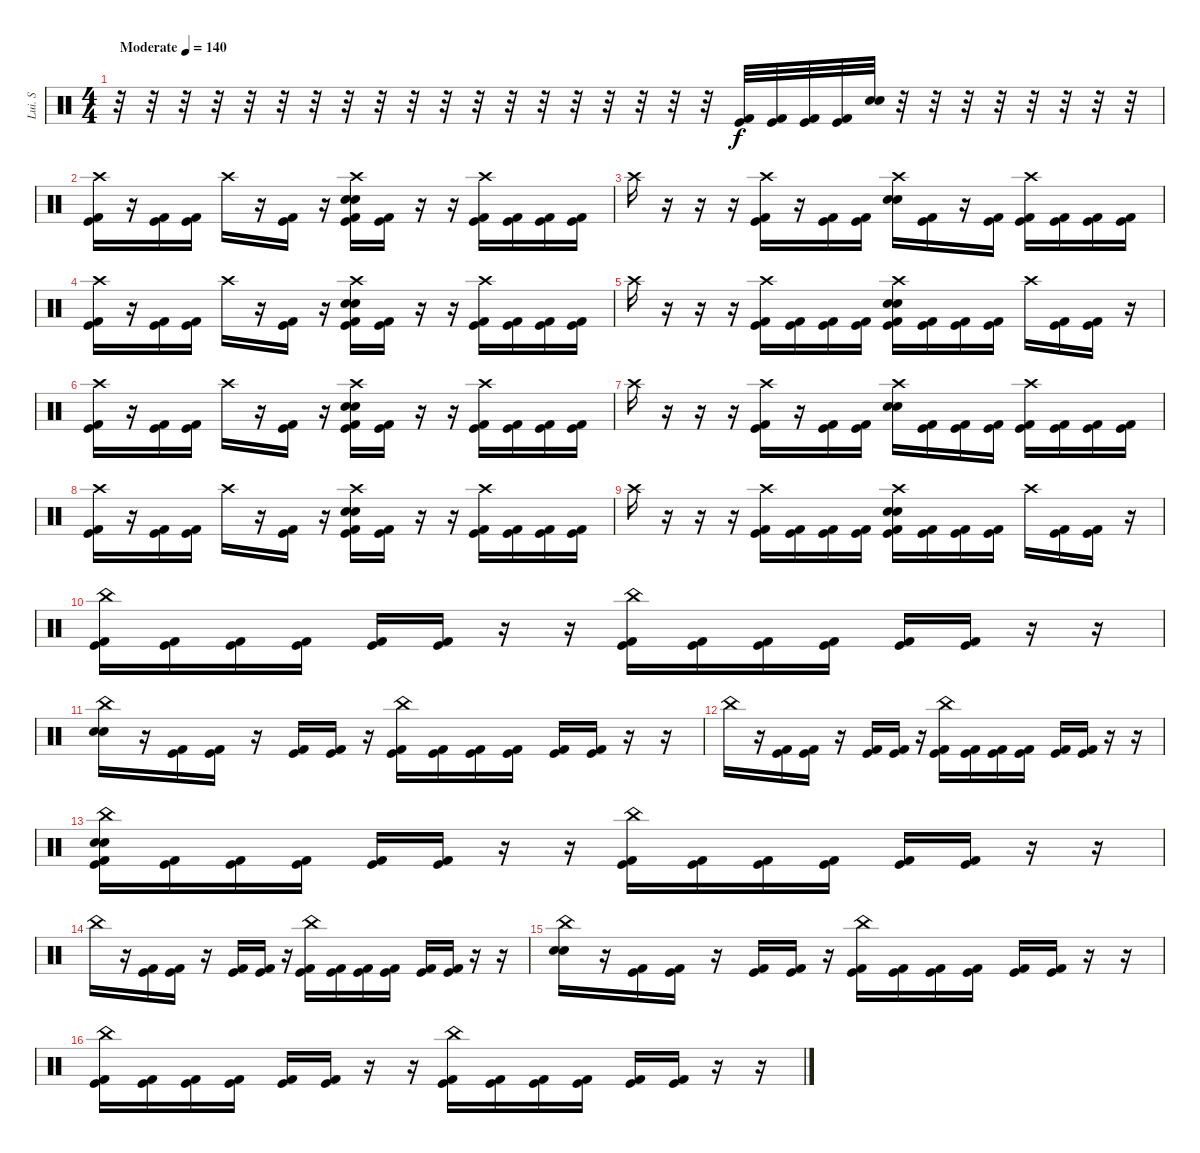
\track ("Lui. S" "Lui. S") {instrument percussion}
\staff {score}
\articulation defaults
\ts (4 4)
\tempo (140 "Moderate")
\clef neutral
\ks c
r.32{dy f} r.32 r.32 r.32 r.32 r.32 r.32 r.32 r.32 r.32 r.32 r.32 r.32 r.32 r.32 r.32 r.32 r.32 r.32 ("Kick (hit)" "Kick (hit) 2").32 ("Kick (hit)" "Kick (hit) 2").32 ("Kick (hit)" "Kick (hit) 2").32 ("Kick (hit)" "Kick (hit) 2").32 ("Electric Snare (hit)" "Snare (hit) 2").32 r.32 r.32 r.32 r.32 r.32 r.32 r.32 r.32 |
("Crash high (hit)" "Kick (hit)" "Kick (hit) 2").16 r.16 ("Kick (hit)" "Kick (hit) 2").16 ("Kick (hit)" "Kick (hit) 2").16 "Crash high (hit)".16 r.16 ("Kick (hit)" "Kick (hit) 2").16 r.16 ("Crash high (hit)" "Electric Snare (hit)" "Snare (hit) 2" "Kick (hit)" "Kick (hit) 2").16 ("Kick (hit)" "Kick (hit) 2").16 r.16 r.16 ("Crash high (hit)" "Kick (hit)" "Kick (hit) 2").16 ("Kick (hit)" "Kick (hit) 2").16 ("Kick (hit)" "Kick (hit) 2").16 ("Kick (hit)" "Kick (hit) 2").16 |
"Crash high (hit)".16 r.16 r.16 r.16 ("Crash high (hit)" "Kick (hit)" "Kick (hit) 2").16 r.16 ("Kick (hit)" "Kick (hit) 2").16 ("Kick (hit)" "Kick (hit) 2").16 ("Crash high (hit)" "Electric Snare (hit)" "Snare (hit) 2").16 ("Kick (hit)" "Kick (hit) 2").16 r.16 ("Kick (hit)" "Kick (hit) 2").16 ("Crash high (hit)" "Kick (hit)" "Kick (hit) 2").16 ("Kick (hit)" "Kick (hit) 2").16 ("Kick (hit)" "Kick (hit) 2").16 ("Kick (hit)" "Kick (hit) 2").16 |
("Crash high (hit)" "Kick (hit)" "Kick (hit) 2").16 r.16 ("Kick (hit)" "Kick (hit) 2").16 ("Kick (hit)" "Kick (hit) 2").16 "Crash high (hit)".16 r.16 ("Kick (hit)" "Kick (hit) 2").16 r.16 ("Crash high (hit)" "Electric Snare (hit)" "Snare (hit) 2" "Kick (hit)" "Kick (hit) 2").16 ("Kick (hit)" "Kick (hit) 2").16 r.16 r.16 ("Crash high (hit)" "Kick (hit)" "Kick (hit) 2").16 ("Kick (hit)" "Kick (hit) 2").16 ("Kick (hit)" "Kick (hit) 2").16 ("Kick (hit)" "Kick (hit) 2").16 |
"Crash high (hit)".16 r.16 r.16 r.16 ("Crash high (hit)" "Kick (hit)" "Kick (hit) 2").16 ("Kick (hit)" "Kick (hit) 2").16 ("Kick (hit)" "Kick (hit) 2").16 ("Kick (hit)" "Kick (hit) 2").16 ("Crash high (hit)" "Electric Snare (hit)" "Snare (hit) 2" "Kick (hit)" "Kick (hit) 2").16 ("Kick (hit)" "Kick (hit) 2").16 ("Kick (hit)" "Kick (hit) 2").16 ("Kick (hit)" "Kick (hit) 2").16 "Crash high (hit)".16 ("Kick (hit)" "Kick (hit) 2").16 ("Kick (hit)" "Kick (hit) 2").16 r.16 |
("Crash high (hit)" "Kick (hit)" "Kick (hit) 2").16 r.16 ("Kick (hit)" "Kick (hit) 2").16 ("Kick (hit)" "Kick (hit) 2").16 "Crash high (hit)".16 r.16 ("Kick (hit)" "Kick (hit) 2").16 r.16 ("Crash high (hit)" "Electric Snare (hit)" "Snare (hit) 2" "Kick (hit)" "Kick (hit) 2").16 ("Kick (hit)" "Kick (hit) 2").16 r.16 r.16 ("Crash high (hit)" "Kick (hit)" "Kick (hit) 2").16 ("Kick (hit)" "Kick (hit) 2").16 ("Kick (hit)" "Kick (hit) 2").16 ("Kick (hit)" "Kick (hit) 2").16 |
"Crash high (hit)".16 r.16 r.16 r.16 ("Crash high (hit)" "Kick (hit)" "Kick (hit) 2").16 r.16 ("Kick (hit)" "Kick (hit) 2").16 ("Kick (hit)" "Kick (hit) 2").16 ("Crash high (hit)" "Electric Snare (hit)" "Snare (hit) 2").16 ("Kick (hit)" "Kick (hit) 2").16 ("Kick (hit)" "Kick (hit) 2").16 ("Kick (hit)" "Kick (hit) 2").16 ("Crash high (hit)" "Kick (hit)" "Kick (hit) 2").16 ("Kick (hit)" "Kick (hit) 2").16 ("Kick (hit)" "Kick (hit) 2").16 ("Kick (hit)" "Kick (hit) 2").16 |
("Crash high (hit)" "Kick (hit)" "Kick (hit) 2").16 r.16 ("Kick (hit)" "Kick (hit) 2").16 ("Kick (hit)" "Kick (hit) 2").16 "Crash high (hit)".16 r.16 ("Kick (hit)" "Kick (hit) 2").16 r.16 ("Crash high (hit)" "Electric Snare (hit)" "Snare (hit) 2" "Kick (hit)" "Kick (hit) 2").16 ("Kick (hit)" "Kick (hit) 2").16 r.16 r.16 ("Crash high (hit)" "Kick (hit)" "Kick (hit) 2").16 ("Kick (hit)" "Kick (hit) 2").16 ("Kick (hit)" "Kick (hit) 2").16 ("Kick (hit)" "Kick (hit) 2").16 |
"Crash high (hit)".16 r.16 r.16 r.16 ("Crash high (hit)" "Kick (hit)" "Kick (hit) 2").16 ("Kick (hit)" "Kick (hit) 2").16 ("Kick (hit)" "Kick (hit) 2").16 ("Kick (hit)" "Kick (hit) 2").16 ("Crash high (hit)" "Electric Snare (hit)" "Snare (hit) 2" "Kick (hit)" "Kick (hit) 2").16 ("Kick (hit)" "Kick (hit) 2").16 ("Kick (hit)" "Kick (hit) 2").16 ("Kick (hit)" "Kick (hit) 2").16 "Crash high (hit)".16 ("Kick (hit)" "Kick (hit) 2").16 ("Kick (hit)" "Kick (hit) 2").16 r.16 |
("China (hit)" "Kick (hit)" "Kick (hit) 2").16 ("Kick (hit)" "Kick (hit) 2").16 ("Kick (hit)" "Kick (hit) 2").16 ("Kick (hit)" "Kick (hit) 2").16 ("Kick (hit)" "Kick (hit) 2").16 ("Kick (hit)" "Kick (hit) 2").16 r.16 r.16 ("China (hit)" "Kick (hit)" "Kick (hit) 2").16 ("Kick (hit)" "Kick (hit) 2").16 ("Kick (hit)" "Kick (hit) 2").16 ("Kick (hit)" "Kick (hit) 2").16 ("Kick (hit)" "Kick (hit) 2").16 ("Kick (hit)" "Kick (hit) 2").16 r.16 r.16 |
("China (hit)" "Electric Snare (hit)" "Snare (hit) 2").16 r.16 ("Kick (hit)" "Kick (hit) 2").16 ("Kick (hit)" "Kick (hit) 2").16 r.16 ("Kick (hit)" "Kick (hit) 2").16 ("Kick (hit)" "Kick (hit) 2").16 r.16 ("China (hit)" "Kick (hit)" "Kick (hit) 2").16 ("Kick (hit)" "Kick (hit) 2").16 ("Kick (hit)" "Kick (hit) 2").16 ("Kick (hit)" "Kick (hit) 2").16 ("Kick (hit)" "Kick (hit) 2").16 ("Kick (hit)" "Kick (hit) 2").16 r.16 r.16 |
"China (hit)".16 r.16 ("Kick (hit)" "Kick (hit) 2").16 ("Kick (hit)" "Kick (hit) 2").16 r.16 ("Kick (hit)" "Kick (hit) 2").16 ("Kick (hit)" "Kick (hit) 2").16 r.16 ("China (hit)" "Kick (hit)" "Kick (hit) 2").16 ("Kick (hit)" "Kick (hit) 2").16 ("Kick (hit)" "Kick (hit) 2").16 ("Kick (hit)" "Kick (hit) 2").16 ("Kick (hit)" "Kick (hit) 2").16 ("Kick (hit)" "Kick (hit) 2").16 r.16 r.16 |
("China (hit)" "Electric Snare (hit)" "Snare (hit) 2" "Kick (hit)" "Kick (hit) 2").16 ("Kick (hit)" "Kick (hit) 2").16 ("Kick (hit)" "Kick (hit) 2").16 ("Kick (hit)" "Kick (hit) 2").16 ("Kick (hit)" "Kick (hit) 2").16 ("Kick (hit)" "Kick (hit) 2").16 r.16 r.16 ("China (hit)" "Kick (hit)" "Kick (hit) 2").16 ("Kick (hit)" "Kick (hit) 2").16 ("Kick (hit)" "Kick (hit) 2").16 ("Kick (hit)" "Kick (hit) 2").16 ("Kick (hit)" "Kick (hit) 2").16 ("Kick (hit)" "Kick (hit) 2").16 r.16 r.16 |
"China (hit)".16 r.16 ("Kick (hit)" "Kick (hit) 2").16 ("Kick (hit)" "Kick (hit) 2").16 r.16 ("Kick (hit)" "Kick (hit) 2").16 ("Kick (hit)" "Kick (hit) 2").16 r.16 ("China (hit)" "Kick (hit)" "Kick (hit) 2").16 ("Kick (hit)" "Kick (hit) 2").16 ("Kick (hit)" "Kick (hit) 2").16 ("Kick (hit)" "Kick (hit) 2").16 ("Kick (hit)" "Kick (hit) 2").16 ("Kick (hit)" "Kick (hit) 2").16 r.16 r.16 |
("China (hit)" "Electric Snare (hit)" "Snare (hit) 2").16 r.16 ("Kick (hit)" "Kick (hit) 2").16 ("Kick (hit)" "Kick (hit) 2").16 r.16 ("Kick (hit)" "Kick (hit) 2").16 ("Kick (hit)" "Kick (hit) 2").16 r.16 ("China (hit)" "Kick (hit)" "Kick (hit) 2").16 ("Kick (hit)" "Kick (hit) 2").16 ("Kick (hit)" "Kick (hit) 2").16 ("Kick (hit)" "Kick (hit) 2").16 ("Kick (hit)" "Kick (hit) 2").16 ("Kick (hit)" "Kick (hit) 2").16 r.16 r.16 |
("China (hit)" "Kick (hit)" "Kick (hit) 2").16 ("Kick (hit)" "Kick (hit) 2").16 ("Kick (hit)" "Kick (hit) 2").16 ("Kick (hit)" "Kick (hit) 2").16 ("Kick (hit)" "Kick (hit) 2").16 ("Kick (hit)" "Kick (hit) 2").16 r.16 r.16 ("China (hit)" "Kick (hit)" "Kick (hit) 2").16 ("Kick (hit)" "Kick (hit) 2").16 ("Kick (hit)" "Kick (hit) 2").16 ("Kick (hit)" "Kick (hit) 2").16 ("Kick (hit)" "Kick (hit) 2").16 ("Kick (hit)" "Kick (hit) 2").16 r.16 r.16
